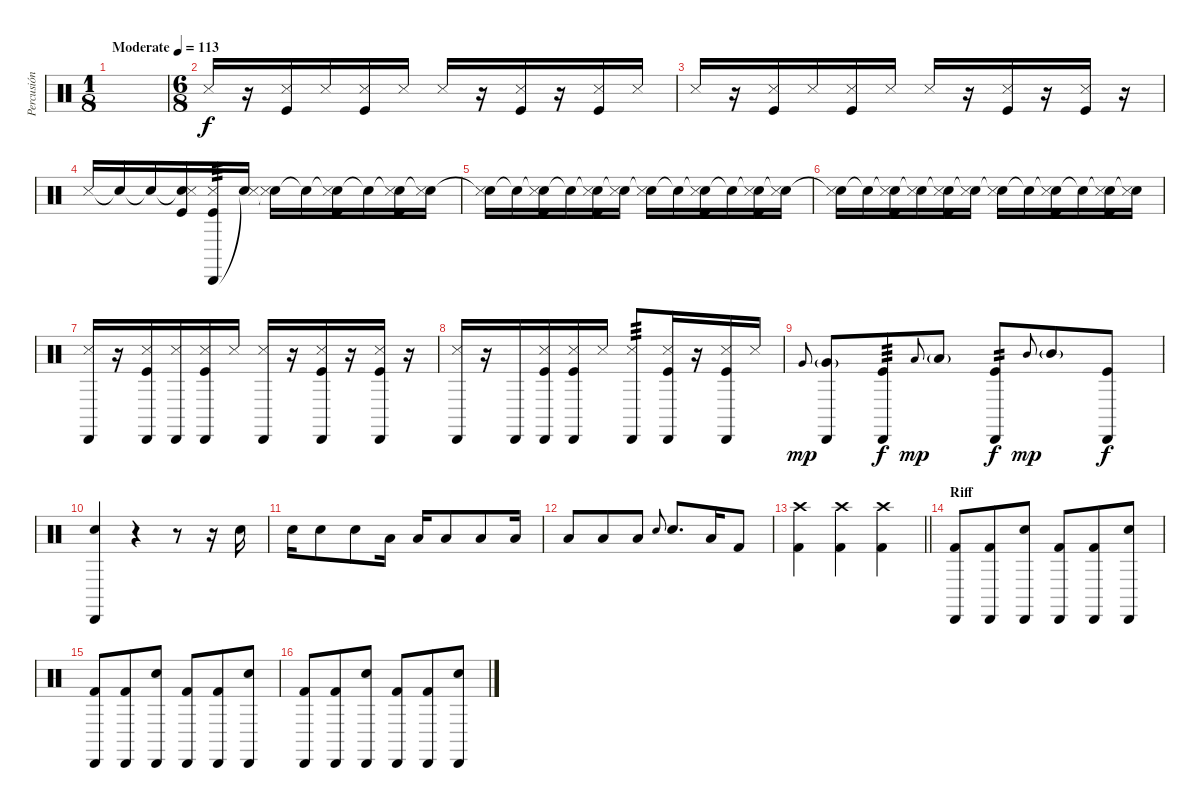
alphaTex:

\track ("Percusión" "Percusión") {instrument percussion}
\staff {score}
\articulation defaults
\ts (1 8)
\tempo (113 "Moderate")
\clef neutral
\ks c
|
\ts (6 8)
"Snare (side stick) 3".16 r.16 ("Snare (side stick) 3" "Kick (hit)").16 "Snare (side stick) 3".16 ("Snare (side stick) 3" "Kick (hit)").16 "Snare (side stick) 3".16 "Snare (side stick) 3".16 r.16 ("Snare (side stick) 3" "Kick (hit)").16 r.16 ("Snare (side stick) 3" "Kick (hit)").16 "Snare (side stick) 3".16 |
"Snare (side stick) 3".16 r.16 ("Snare (side stick) 3" "Kick (hit)").16 "Snare (side stick) 3".16 ("Snare (side stick) 3" "Kick (hit)").16 "Snare (side stick) 3".16 "Snare (side stick) 3".16 r.16 ("Snare (side stick) 3" "Kick (hit)").16 r.16 ("Snare (side stick) 3" "Kick (hit)").16 r.16 |
"Snare (side stick) 3".16 "Snare (hit)"{t}.16 "Snare (hit)"{t}.16 ("Snare (hit)"{t} "Snare (side stick) 3" "Kick (hit)").16 ("Cabasa (hit)" "Snare (side stick) 3" "Kick (hit)").16{tp 3} ("Snare (hit)"{t} "Snare (side stick) 3").16 ("Snare (hit)"{t} "Snare (side stick) 3").16 "Snare (hit)"{t}.16 ("Snare (hit)"{t} "Snare (side stick) 3" "Kick (hit)").16 "Snare (hit)"{t}.16 ("Snare (hit)"{t} "Snare (side stick) 3" "Kick (hit)").16 ("Snare (hit)"{t} "Snare (side stick) 3").16 |
("Snare (hit)"{t} "Snare (side stick) 3").16 "Snare (hit)"{t}.16 ("Snare (hit)"{t} "Snare (side stick) 3" "Kick (hit)").16 "Snare (hit)"{t}.16 ("Snare (hit)"{t} "Snare (side stick) 3" "Kick (hit)").16 ("Snare (hit)"{t} "Snare (side stick) 3").16 ("Snare (hit)"{t} "Snare (side stick) 3").16 "Snare (hit)"{t}.16 ("Snare (hit)"{t} "Snare (side stick) 3" "Kick (hit)").16 "Snare (hit)"{t}.16 ("Snare (hit)"{t} "Snare (side stick) 3" "Kick (hit)").16 ("Snare (hit)"{t} "Snare (side stick) 3").16 |
("Snare (hit)"{t} "Snare (side stick) 3").16 "Snare (hit)"{t}.16 ("Snare (hit)"{t} "Snare (side stick) 3" "Kick (hit)").16 ("Snare (hit)"{t} "Snare (side stick) 3").16 ("Snare (hit)"{t} "Snare (side stick) 3" "Kick (hit)").16 ("Snare (hit)"{t} "Snare (side stick) 3").16 ("Snare (hit)"{t} "Snare (side stick) 3").16 "Snare (hit)"{t}.16 ("Snare (hit)"{t} "Snare (side stick) 3" "Kick (hit)").16 "Snare (hit)"{t}.16 ("Snare (hit)"{t} "Snare (side stick) 3" "Kick (hit)").16 ("Snare (hit)"{t} "Snare (side stick) 3").16 |
("Cabasa (hit)" "Snare (side stick) 3").16 r.16 ("Cabasa (hit)" "Snare (side stick) 3" "Kick (hit)").16 ("Cabasa (hit)" "Snare (side stick) 3").16 ("Cabasa (hit)" "Snare (side stick) 3" "Kick (hit)").16 "Snare (side stick) 3".16 ("Cabasa (hit)" "Snare (side stick) 3").16 r.16 ("Cabasa (hit)" "Snare (side stick) 3" "Kick (hit)").16 r.16 ("Cabasa (hit)" "Snare (side stick) 3" "Kick (hit)").16 r.16 |
("Cabasa (hit)" "Snare (side stick) 3").16 r.16 "Cabasa (hit)".16 ("Cabasa (hit)" "Snare (side stick) 3" "Kick (hit)").16 ("Cabasa (hit)" "Snare (side stick) 3" "Kick (hit)").16 "Snare (side stick) 3".16 ("Cabasa (hit)" "Snare (side stick) 3").8{tp 3} ("Cabasa (hit)" "Snare (side stick) 3" "Kick (hit)").16 r.16 ("Cabasa (hit)" "Snare (side stick) 3" "Kick (hit)").16 "Snare (side stick) 3".16 |
"Very Low Tom (hit)".8{gr onbeat dy mp} ("Cabasa (hit)" "Very Low Tom (hit)"{g}).8 ("Cabasa (hit)" "Kick (hit)").8{tp 3 dy f} "Low Tom (hit)".8{gr onbeat dy mp} "Low Tom (hit)"{g}.8 ("Cabasa (hit)" "Kick (hit)").8{tp 2 dy f} "Mid Tom (hit)".8{gr onbeat dy mp} "Mid Tom (hit)"{g}.8 ("Cabasa (hit)" "Kick (hit)").8{dy f} |
("Cabasa (hit)" "Electric Snare (hit)").4 r.4 r.8 r.16 "Electric Snare (hit)".16 |
"Electric Snare (hit)".16 "Electric Snare (hit)".8 "Electric Snare (hit)".8 "Low Tom (hit)".16 "Low Tom (hit)".16 "Low Tom (hit)".8 "Low Tom (hit)".8 "Low Floor Tom (hit)".16 |
"Low Floor Tom (hit)".8 "Low Floor Tom (hit)".8 "Low Floor Tom (hit)".8 "Electric Snare (hit)".8{gr onbeat} "Electric Snare (hit)".8{d} "Low Tom (hit)".16 "Kick (hit) 2".8 |
\barLineRight lightlight
("Crash high (hit)" "Kick (hit) 2").4 ("Crash high (hit)" "Kick (hit) 2").4 ("Crash high (hit)" "Kick (hit) 2").4 |
\section ("" "Riff")
("Cabasa (hit)" "Kick (hit) 2").8 ("Cabasa (hit)" "Kick (hit) 2").8 ("Cabasa (hit)" "Electric Snare (hit)").8 ("Cabasa (hit)" "Kick (hit) 2").8 ("Cabasa (hit)" "Kick (hit) 2").8 ("Cabasa (hit)" "Electric Snare (hit)").8 |
("Cabasa (hit)" "Kick (hit) 2").8 ("Cabasa (hit)" "Kick (hit) 2").8 ("Cabasa (hit)" "Electric Snare (hit)").8 ("Cabasa (hit)" "Kick (hit) 2").8 ("Cabasa (hit)" "Kick (hit) 2").8 ("Cabasa (hit)" "Electric Snare (hit)").8 |
("Cabasa (hit)" "Kick (hit) 2").8 ("Cabasa (hit)" "Kick (hit) 2").8 ("Cabasa (hit)" "Electric Snare (hit)").8 ("Cabasa (hit)" "Kick (hit) 2").8 ("Cabasa (hit)" "Kick (hit) 2").8 ("Cabasa (hit)" "Electric Snare (hit)").8
